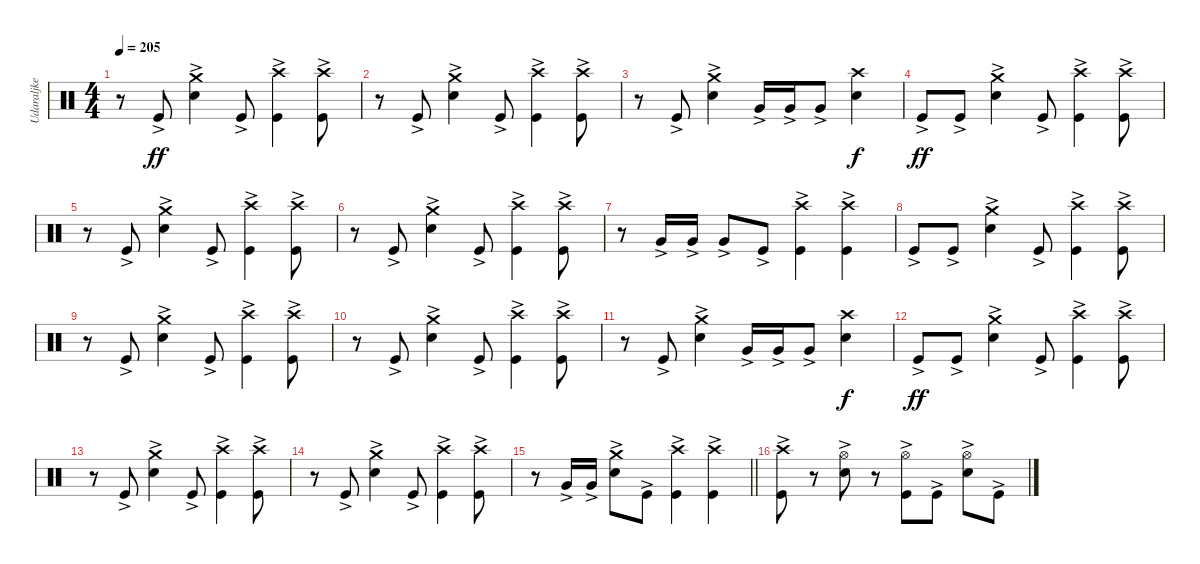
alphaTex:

\track ("Udaraljke" "Udaraljke") {instrument percussion}
\staff {score}
\articulation defaults
\ts (4 4)
\tempo 205
\clef neutral
\ks c
r.8{dy ff} "Kick (hit)"{ac}.8 ("Snare (hit) 2"{ac} "Crash medium (hit)").4 "Kick (hit)"{ac}.8 ("Kick (hit)"{ac} "Crash high (hit)").4 ("Kick (hit)"{ac} "Crash high (hit)").8 |
r.8 "Kick (hit)"{ac}.8 ("Snare (hit) 2"{ac} "Crash medium (hit)").4 "Kick (hit)"{ac}.8 ("Kick (hit)"{ac} "Crash high (hit)").4 ("Kick (hit)"{ac} "Crash high (hit)").8 |
r.8 "Kick (hit)"{ac}.8 ("Snare (hit) 2"{ac} "Crash medium (hit)").4 "Very Low Tom (hit)"{ac}.16 "Very Low Tom (hit)"{ac}.16 "Very Low Tom (hit)"{ac}.8 ("Snare (hit) 2" "Crash high (hit)").4{dy f} |
"Kick (hit)"{ac}.8{dy ff} "Kick (hit)"{ac}.8 ("Snare (hit) 2"{ac} "Crash medium (hit)").4 "Kick (hit)"{ac}.8 ("Kick (hit)"{ac} "Crash high (hit)").4 ("Kick (hit)"{ac} "Crash high (hit)").8 |
r.8 "Kick (hit)"{ac}.8 ("Snare (hit) 2"{ac} "Crash medium (hit)").4 "Kick (hit)"{ac}.8 ("Kick (hit)"{ac} "Crash high (hit)").4 ("Kick (hit)"{ac} "Crash high (hit)").8 |
r.8 "Kick (hit)"{ac}.8 ("Snare (hit) 2"{ac} "Crash medium (hit)").4 "Kick (hit)"{ac}.8 ("Kick (hit)"{ac} "Crash high (hit)").4 ("Kick (hit)"{ac} "Crash high (hit)").8 |
r.8 "Very Low Tom (hit)"{ac}.16 "Very Low Tom (hit)"{ac}.16 "Very Low Tom (hit)"{ac}.8 "Kick (hit)"{ac}.8 ("Kick (hit)"{ac} "Crash high (hit)").4 ("Kick (hit)"{ac} "Crash high (hit)").4 |
"Kick (hit)"{ac}.8 "Kick (hit)"{ac}.8 ("Snare (hit) 2"{ac} "Crash medium (hit)").4 "Kick (hit)"{ac}.8 ("Kick (hit)"{ac} "Crash high (hit)").4 ("Kick (hit)"{ac} "Crash high (hit)").8 |
r.8 "Kick (hit)"{ac}.8 ("Snare (hit) 2"{ac} "Crash medium (hit)").4 "Kick (hit)"{ac}.8 ("Kick (hit)"{ac} "Crash high (hit)").4 ("Kick (hit)"{ac} "Crash high (hit)").8 |
r.8 "Kick (hit)"{ac}.8 ("Snare (hit) 2"{ac} "Crash medium (hit)").4 "Kick (hit)"{ac}.8 ("Kick (hit)"{ac} "Crash high (hit)").4 ("Kick (hit)"{ac} "Crash high (hit)").8 |
r.8 "Kick (hit)"{ac}.8 ("Snare (hit) 2"{ac} "Crash medium (hit)").4 "Very Low Tom (hit)"{ac}.16 "Very Low Tom (hit)"{ac}.16 "Very Low Tom (hit)"{ac}.8 ("Snare (hit) 2" "Crash high (hit)").4{dy f} |
"Kick (hit)"{ac}.8{dy ff} "Kick (hit)"{ac}.8 ("Snare (hit) 2"{ac} "Crash medium (hit)").4 "Kick (hit)"{ac}.8 ("Kick (hit)"{ac} "Crash high (hit)").4 ("Kick (hit)"{ac} "Crash high (hit)").8 |
r.8 "Kick (hit)"{ac}.8 ("Snare (hit) 2"{ac} "Crash medium (hit)").4 "Kick (hit)"{ac}.8 ("Kick (hit)"{ac} "Crash high (hit)").4 ("Kick (hit)"{ac} "Crash high (hit)").8 |
r.8 "Kick (hit)"{ac}.8 ("Snare (hit) 2"{ac} "Crash medium (hit)").4 "Kick (hit)"{ac}.8 ("Kick (hit)"{ac} "Crash high (hit)").4 ("Kick (hit)"{ac} "Crash high (hit)").8 |
\barLineRight lightlight
r.8 "Very Low Tom (hit)"{ac}.16 "Very Low Tom (hit)"{ac}.16 ("Snare (hit) 2"{ac} "Crash medium (hit)").8 "Kick (hit)"{ac}.8 ("Kick (hit)"{ac} "Crash high (hit)").4 ("Kick (hit)"{ac} "Crash high (hit)").4 |
\section ("" "")
("Kick (hit)"{ac} "Crash high (hit)").8 r.8 ("Hi-Hat (open)" "Snare (hit) 2"{ac}).8 r.8 ("Hi-Hat (open)" "Kick (hit)"{ac}).8 "Kick (hit)"{ac}.8 ("Snare (hit) 2"{ac} "Hi-Hat (open)").8 "Kick (hit)"{ac}.8
